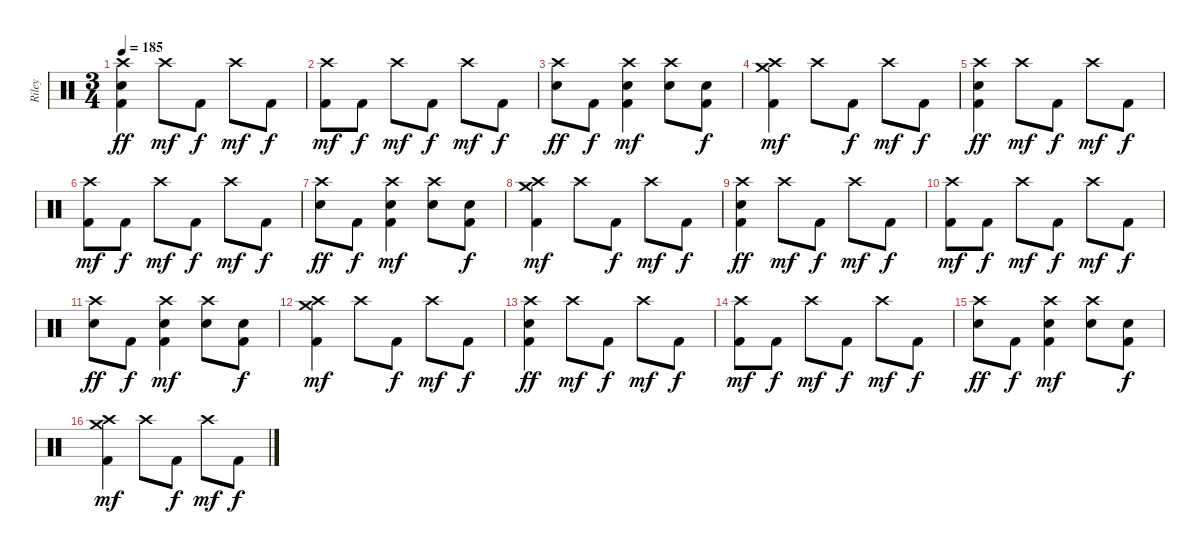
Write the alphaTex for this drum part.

\track ("Riley" "Riley") {instrument percussion}
\staff {score}
\articulation defaults
\ts (3 4)
\tempo 185
\clef neutral
\ks c
("Crash high (hit)" "Electric Snare (hit)" "Kick (hit) 2").4{dy ff} "Crash high (hit)".8{dy mf} "Kick (hit) 2".8{dy f} "Crash high (hit)".8{dy mf} "Kick (hit) 2".8{dy f} |
("Crash high (hit)" "Kick (hit) 2").8{dy mf} "Kick (hit) 2".8{dy f} "Crash high (hit)".8{dy mf} "Kick (hit) 2".8{dy f} "Crash high (hit)".8{dy mf} "Kick (hit) 2".8{dy f} |
("Crash high (hit)" "Electric Snare (hit)").8{dy ff} "Kick (hit) 2".8{dy f} ("Crash high (hit)" "Electric Snare (hit)" "Kick (hit) 2").4{dy mf} ("Crash high (hit)" "Electric Snare (hit)").8 ("Electric Snare (hit)" "Kick (hit) 2").8{dy f} |
("Crash high (hit)" "Crash medium (hit)" "Kick (hit) 2").4{dy mf} "Crash high (hit)".8 "Kick (hit) 2".8{dy f} "Crash high (hit)".8{dy mf} "Kick (hit) 2".8{dy f} |
("Crash high (hit)" "Electric Snare (hit)" "Kick (hit) 2").4{dy ff} "Crash high (hit)".8{dy mf} "Kick (hit) 2".8{dy f} "Crash high (hit)".8{dy mf} "Kick (hit) 2".8{dy f} |
("Crash high (hit)" "Kick (hit) 2").8{dy mf} "Kick (hit) 2".8{dy f} "Crash high (hit)".8{dy mf} "Kick (hit) 2".8{dy f} "Crash high (hit)".8{dy mf} "Kick (hit) 2".8{dy f} |
("Crash high (hit)" "Electric Snare (hit)").8{dy ff} "Kick (hit) 2".8{dy f} ("Crash high (hit)" "Electric Snare (hit)" "Kick (hit) 2").4{dy mf} ("Crash high (hit)" "Electric Snare (hit)").8 ("Electric Snare (hit)" "Kick (hit) 2").8{dy f} |
("Crash high (hit)" "Crash medium (hit)" "Kick (hit) 2").4{dy mf} "Crash high (hit)".8 "Kick (hit) 2".8{dy f} "Crash high (hit)".8{dy mf} "Kick (hit) 2".8{dy f} |
("Crash high (hit)" "Electric Snare (hit)" "Kick (hit) 2").4{dy ff} "Crash high (hit)".8{dy mf} "Kick (hit) 2".8{dy f} "Crash high (hit)".8{dy mf} "Kick (hit) 2".8{dy f} |
("Crash high (hit)" "Kick (hit) 2").8{dy mf} "Kick (hit) 2".8{dy f} "Crash high (hit)".8{dy mf} "Kick (hit) 2".8{dy f} "Crash high (hit)".8{dy mf} "Kick (hit) 2".8{dy f} |
("Crash high (hit)" "Electric Snare (hit)").8{dy ff} "Kick (hit) 2".8{dy f} ("Crash high (hit)" "Electric Snare (hit)" "Kick (hit) 2").4{dy mf} ("Crash high (hit)" "Electric Snare (hit)").8 ("Electric Snare (hit)" "Kick (hit) 2").8{dy f} |
("Crash high (hit)" "Crash medium (hit)" "Kick (hit) 2").4{dy mf} "Crash high (hit)".8 "Kick (hit) 2".8{dy f} "Crash high (hit)".8{dy mf} "Kick (hit) 2".8{dy f} |
("Crash high (hit)" "Electric Snare (hit)" "Kick (hit) 2").4{dy ff} "Crash high (hit)".8{dy mf} "Kick (hit) 2".8{dy f} "Crash high (hit)".8{dy mf} "Kick (hit) 2".8{dy f} |
("Crash high (hit)" "Kick (hit) 2").8{dy mf} "Kick (hit) 2".8{dy f} "Crash high (hit)".8{dy mf} "Kick (hit) 2".8{dy f} "Crash high (hit)".8{dy mf} "Kick (hit) 2".8{dy f} |
("Crash high (hit)" "Electric Snare (hit)").8{dy ff} "Kick (hit) 2".8{dy f} ("Crash high (hit)" "Electric Snare (hit)" "Kick (hit) 2").4{dy mf} ("Crash high (hit)" "Electric Snare (hit)").8 ("Electric Snare (hit)" "Kick (hit) 2").8{dy f} |
("Crash high (hit)" "Crash medium (hit)" "Kick (hit) 2").4{dy mf} "Crash high (hit)".8 "Kick (hit) 2".8{dy f} "Crash high (hit)".8{dy mf} "Kick (hit) 2".8{dy f}
